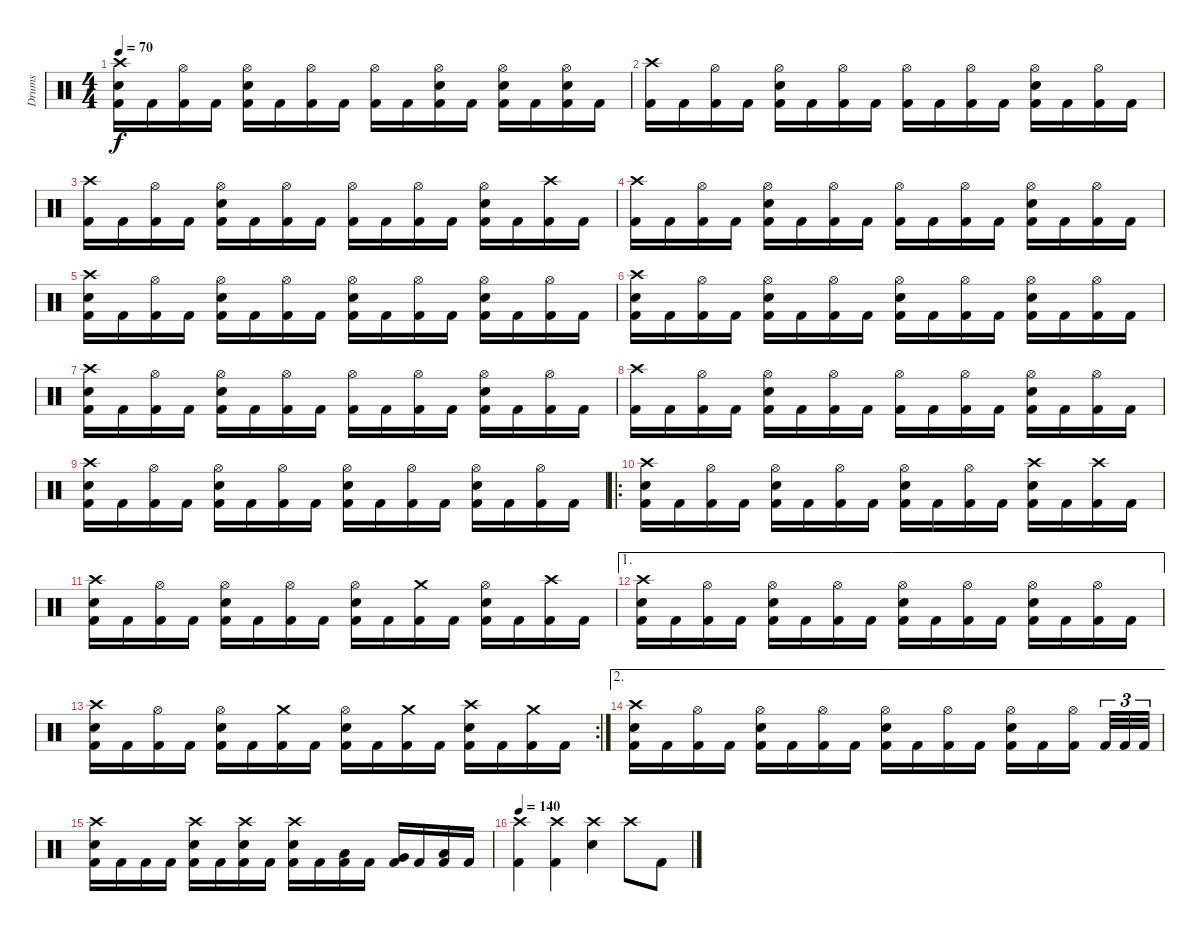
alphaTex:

\track ("Drums" "Drums") {instrument percussion}
\staff {score}
\articulation defaults
\ts (4 4)
\tempo 70
\clef neutral
\ks c
("Crash high (hit)" "Snare (hit) 2" "Kick (hit) 2").16{dy f} "Kick (hit) 2".16 ("Hi-Hat (open)" "Kick (hit) 2").16 "Kick (hit) 2".16 ("Hi-Hat (open)" "Snare (hit) 2" "Kick (hit) 2").16 "Kick (hit) 2".16 ("Hi-Hat (open)" "Kick (hit) 2").16 "Kick (hit) 2".16 ("Hi-Hat (open)" "Kick (hit) 2").16 "Kick (hit) 2".16 ("Hi-Hat (open)" "Snare (hit) 2" "Kick (hit) 2").16 "Kick (hit) 2".16 ("Hi-Hat (open)" "Snare (hit) 2" "Kick (hit) 2").16 "Kick (hit) 2".16 ("Hi-Hat (open)" "Snare (hit) 2" "Kick (hit) 2").16 "Kick (hit) 2".16 |
("Crash high (hit)" "Kick (hit) 2").16 "Kick (hit) 2".16 ("Hi-Hat (open)" "Kick (hit) 2").16 "Kick (hit) 2".16 ("Hi-Hat (open)" "Snare (hit) 2" "Kick (hit) 2").16 "Kick (hit) 2".16 ("Hi-Hat (open)" "Kick (hit) 2").16 "Kick (hit) 2".16 ("Hi-Hat (open)" "Kick (hit) 2").16 "Kick (hit) 2".16 ("Hi-Hat (open)" "Kick (hit) 2").16 "Kick (hit) 2".16 ("Hi-Hat (open)" "Snare (hit) 2" "Kick (hit) 2").16 "Kick (hit) 2".16 ("Hi-Hat (open)" "Kick (hit) 2").16 "Kick (hit) 2".16 |
("Crash high (hit)" "Kick (hit) 2").16 "Kick (hit) 2".16 ("Hi-Hat (open)" "Kick (hit) 2").16 "Kick (hit) 2".16 ("Hi-Hat (open)" "Snare (hit) 2" "Kick (hit) 2").16 "Kick (hit) 2".16 ("Hi-Hat (open)" "Kick (hit) 2").16 "Kick (hit) 2".16 ("Hi-Hat (open)" "Kick (hit) 2").16 "Kick (hit) 2".16 ("Hi-Hat (open)" "Kick (hit) 2").16 "Kick (hit) 2".16 ("Hi-Hat (open)" "Snare (hit) 2" "Kick (hit) 2").16 "Kick (hit) 2".16 ("Crash high (hit)" "Kick (hit) 2").16 "Kick (hit) 2".16 |
("Crash high (hit)" "Kick (hit) 2").16 "Kick (hit) 2".16 ("Hi-Hat (open)" "Kick (hit) 2").16 "Kick (hit) 2".16 ("Hi-Hat (open)" "Snare (hit) 2" "Kick (hit) 2").16 "Kick (hit) 2".16 ("Hi-Hat (open)" "Kick (hit) 2").16 "Kick (hit) 2".16 ("Hi-Hat (open)" "Kick (hit) 2").16 "Kick (hit) 2".16 ("Hi-Hat (open)" "Kick (hit) 2").16 "Kick (hit) 2".16 ("Hi-Hat (open)" "Snare (hit) 2" "Kick (hit) 2").16 "Kick (hit) 2".16 ("Hi-Hat (open)" "Kick (hit) 2").16 "Kick (hit) 2".16 |
("Crash high (hit)" "Snare (hit) 2" "Kick (hit) 2").16 "Kick (hit) 2".16 ("Hi-Hat (open)" "Kick (hit) 2").16 "Kick (hit) 2".16 ("Hi-Hat (open)" "Snare (hit) 2" "Kick (hit) 2").16 "Kick (hit) 2".16 ("Hi-Hat (open)" "Kick (hit) 2").16 "Kick (hit) 2".16 ("Hi-Hat (open)" "Snare (hit) 2" "Kick (hit) 2").16 "Kick (hit) 2".16 ("Hi-Hat (open)" "Kick (hit) 2").16 "Kick (hit) 2".16 ("Hi-Hat (open)" "Snare (hit) 2" "Kick (hit) 2").16 "Kick (hit) 2".16 ("Hi-Hat (open)" "Kick (hit) 2").16 "Kick (hit) 2".16 |
("Crash high (hit)" "Snare (hit) 2" "Kick (hit) 2").16 "Kick (hit) 2".16 ("Hi-Hat (open)" "Kick (hit) 2").16 "Kick (hit) 2".16 ("Hi-Hat (open)" "Snare (hit) 2" "Kick (hit) 2").16 "Kick (hit) 2".16 ("Hi-Hat (open)" "Kick (hit) 2").16 "Kick (hit) 2".16 ("Hi-Hat (open)" "Snare (hit) 2" "Kick (hit) 2").16 "Kick (hit) 2".16 ("Hi-Hat (open)" "Kick (hit) 2").16 "Kick (hit) 2".16 ("Hi-Hat (open)" "Snare (hit) 2" "Kick (hit) 2").16 "Kick (hit) 2".16 ("Hi-Hat (open)" "Kick (hit) 2").16 "Kick (hit) 2".16 |
("Crash high (hit)" "Snare (hit) 2" "Kick (hit) 2").16 "Kick (hit) 2".16 ("Hi-Hat (open)" "Kick (hit) 2").16 "Kick (hit) 2".16 ("Hi-Hat (open)" "Snare (hit) 2" "Kick (hit) 2").16 "Kick (hit) 2".16 ("Hi-Hat (open)" "Kick (hit) 2").16 "Kick (hit) 2".16 ("Hi-Hat (open)" "Kick (hit) 2").16 "Kick (hit) 2".16 ("Hi-Hat (open)" "Kick (hit) 2").16 "Kick (hit) 2".16 ("Hi-Hat (open)" "Snare (hit) 2" "Kick (hit) 2").16 "Kick (hit) 2".16 ("Hi-Hat (open)" "Kick (hit) 2").16 "Kick (hit) 2".16 |
("Crash high (hit)" "Kick (hit) 2").16 "Kick (hit) 2".16 ("Hi-Hat (open)" "Kick (hit) 2").16 "Kick (hit) 2".16 ("Hi-Hat (open)" "Snare (hit) 2" "Kick (hit) 2").16 "Kick (hit) 2".16 ("Hi-Hat (open)" "Kick (hit) 2").16 "Kick (hit) 2".16 ("Hi-Hat (open)" "Kick (hit) 2").16 "Kick (hit) 2".16 ("Hi-Hat (open)" "Kick (hit) 2").16 "Kick (hit) 2".16 ("Hi-Hat (open)" "Snare (hit) 2" "Kick (hit) 2").16 "Kick (hit) 2".16 ("Hi-Hat (open)" "Kick (hit) 2").16 "Kick (hit) 2".16 |
("Crash high (hit)" "Snare (hit) 2" "Kick (hit) 2").16 "Kick (hit) 2".16 ("Hi-Hat (open)" "Kick (hit) 2").16 "Kick (hit) 2".16 ("Hi-Hat (open)" "Snare (hit) 2" "Kick (hit) 2").16 "Kick (hit) 2".16 ("Hi-Hat (open)" "Kick (hit) 2").16 "Kick (hit) 2".16 ("Hi-Hat (open)" "Snare (hit) 2" "Kick (hit) 2").16 "Kick (hit) 2".16 ("Hi-Hat (open)" "Kick (hit) 2").16 "Kick (hit) 2".16 ("Hi-Hat (open)" "Snare (hit) 2" "Kick (hit) 2").16 "Kick (hit) 2".16 ("Hi-Hat (open)" "Kick (hit) 2").16 "Kick (hit) 2".16 |
\ro
("Crash high (hit)" "Snare (hit) 2" "Kick (hit) 2").16 "Kick (hit) 2".16 ("Hi-Hat (open)" "Kick (hit) 2").16 "Kick (hit) 2".16 ("Hi-Hat (open)" "Snare (hit) 2" "Kick (hit) 2").16 "Kick (hit) 2".16 ("Hi-Hat (open)" "Kick (hit) 2").16 "Kick (hit) 2".16 ("Hi-Hat (open)" "Snare (hit) 2" "Kick (hit) 2").16 "Kick (hit) 2".16 ("Hi-Hat (open)" "Kick (hit) 2").16 "Kick (hit) 2".16 ("Crash high (hit)" "Snare (hit) 2" "Kick (hit) 2").16 "Kick (hit) 2".16 ("Crash high (hit)" "Kick (hit) 2").16 "Kick (hit) 2".16 |
("Crash high (hit)" "Snare (hit) 2" "Kick (hit) 2").16 "Kick (hit) 2".16 ("Hi-Hat (open)" "Kick (hit) 2").16 "Kick (hit) 2".16 ("Hi-Hat (open)" "Snare (hit) 2" "Kick (hit) 2").16 "Kick (hit) 2".16 ("Hi-Hat (open)" "Kick (hit) 2").16 "Kick (hit) 2".16 ("Hi-Hat (open)" "Snare (hit) 2" "Kick (hit) 2").16 "Kick (hit) 2".16 ("Crash medium (hit)" "Kick (hit) 2").16 "Kick (hit) 2".16 ("Hi-Hat (open)" "Snare (hit) 2" "Kick (hit) 2").16 "Kick (hit) 2".16 ("Crash high (hit)" "Kick (hit) 2").16 "Kick (hit) 2".16 |
\ae 1
("Crash high (hit)" "Snare (hit) 2" "Kick (hit) 2").16 "Kick (hit) 2".16 ("Hi-Hat (open)" "Kick (hit) 2").16 "Kick (hit) 2".16 ("Hi-Hat (open)" "Snare (hit) 2" "Kick (hit) 2").16 "Kick (hit) 2".16 ("Hi-Hat (open)" "Kick (hit) 2").16 "Kick (hit) 2".16 ("Hi-Hat (open)" "Snare (hit) 2" "Kick (hit) 2").16 "Kick (hit) 2".16 ("Hi-Hat (open)" "Kick (hit) 2").16 "Kick (hit) 2".16 ("Hi-Hat (open)" "Snare (hit) 2" "Kick (hit) 2").16 "Kick (hit) 2".16 ("Hi-Hat (open)" "Kick (hit) 2").16 "Kick (hit) 2".16 |
\rc 2
("Crash high (hit)" "Snare (hit) 2" "Kick (hit) 2").16 "Kick (hit) 2".16 ("Hi-Hat (open)" "Kick (hit) 2").16 "Kick (hit) 2".16 ("Hi-Hat (open)" "Snare (hit) 2" "Kick (hit) 2").16 "Kick (hit) 2".16 ("Crash medium (hit)" "Kick (hit) 2").16 "Kick (hit) 2".16 ("Hi-Hat (open)" "Snare (hit) 2" "Kick (hit) 2").16 "Kick (hit) 2".16 ("Crash medium (hit)" "Kick (hit) 2").16 "Kick (hit) 2".16 ("Crash high (hit)" "Snare (hit) 2" "Kick (hit) 2").16 "Kick (hit) 2".16 ("Crash medium (hit)" "Kick (hit) 2").16 "Kick (hit) 2".16 |
\ae 2
("Crash high (hit)" "Snare (hit) 2" "Kick (hit) 2").16 "Kick (hit) 2".16 ("Hi-Hat (open)" "Kick (hit) 2").16 "Kick (hit) 2".16 ("Hi-Hat (open)" "Snare (hit) 2" "Kick (hit) 2").16 "Kick (hit) 2".16 ("Hi-Hat (open)" "Kick (hit) 2").16 "Kick (hit) 2".16 ("Hi-Hat (open)" "Snare (hit) 2" "Kick (hit) 2").16 "Kick (hit) 2".16 ("Hi-Hat (open)" "Kick (hit) 2").16 "Kick (hit) 2".16 ("Hi-Hat (open)" "Snare (hit) 2" "Kick (hit) 2").16 "Kick (hit) 2".16 ("Hi-Hat (open)" "Kick (hit) 2").16 "Kick (hit) 2".32{tu (3 2)} "Kick (hit) 2".32{tu (3 2)} "Kick (hit) 2".32{tu (3 2)} |
("Crash high (hit)" "Snare (hit) 2" "Kick (hit) 2").16 "Kick (hit) 2".16 "Kick (hit) 2".16 "Kick (hit) 2".16 ("Crash high (hit)" "Snare (hit) 2" "Kick (hit) 2").16 "Kick (hit) 2".16 ("Crash high (hit)" "Snare (hit) 2" "Kick (hit) 2").16 "Kick (hit) 2".16 ("Crash high (hit)" "Snare (hit) 2" "Kick (hit) 2").16 "Kick (hit) 2".16 ("Low Tom (hit)" "Kick (hit) 2").16 "Kick (hit) 2".16 ("Very Low Tom (hit)" "Kick (hit) 2").16 "Kick (hit) 2".16 ("Low Floor Tom (hit)" "Kick (hit) 2").16 "Kick (hit) 2".16 |
\tempo 140
("Crash high (hit)" "Kick (hit) 2").4 ("Crash high (hit)" "Kick (hit) 2").4 ("Crash high (hit)" "Snare (hit) 2").4 "Crash high (hit)".8 "Kick (hit) 2".8
